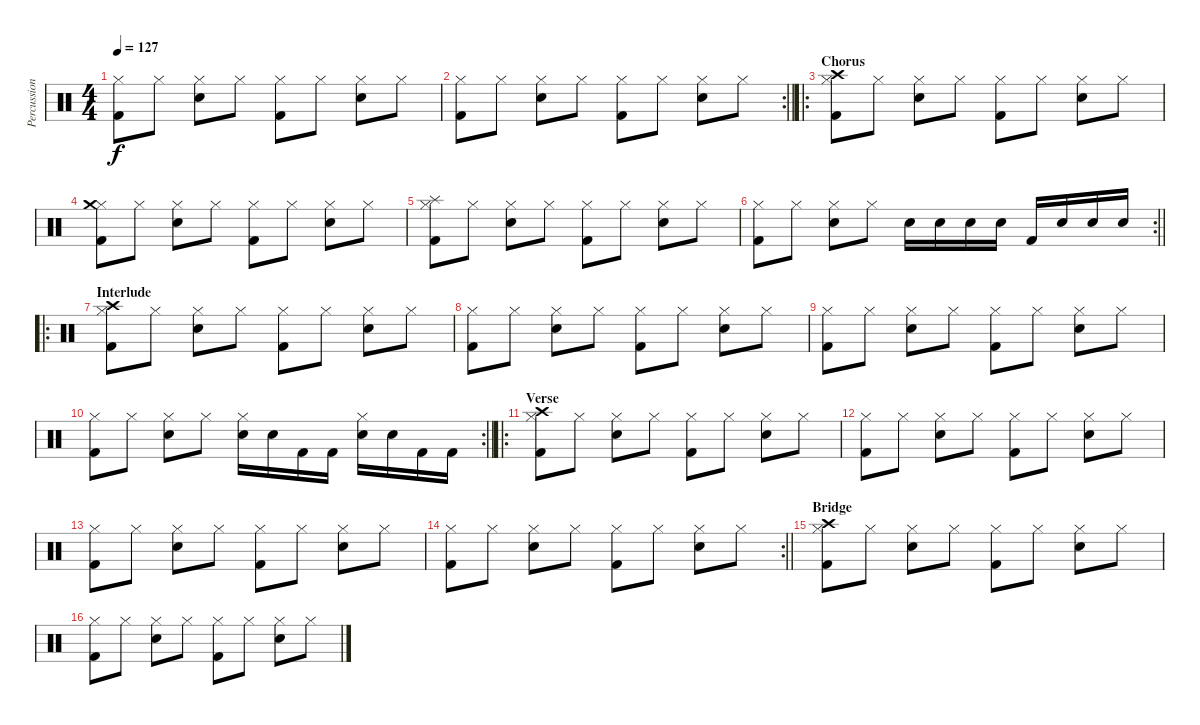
\track ("Percussions" "Percussion") {instrument percussion}
\staff {score}
\articulation defaults
\ts (4 4)
\tempo 127
\clef neutral
\ks c
("Hi-Hat (closed)" "Kick (hit) 2").8{dy f} "Hi-Hat (closed)".8 ("Hi-Hat (closed)" "Electric Snare (hit)").8 "Hi-Hat (closed)".8 ("Hi-Hat (closed)" "Kick (hit) 2").8 "Hi-Hat (closed)".8 ("Hi-Hat (closed)" "Electric Snare (hit)").8 "Hi-Hat (closed)".8 |
\rc 2
\barLineRight lightlight
("Hi-Hat (closed)" "Kick (hit) 2").8 "Hi-Hat (closed)".8 ("Hi-Hat (closed)" "Electric Snare (hit)").8 "Hi-Hat (closed)".8 ("Hi-Hat (closed)" "Kick (hit) 2").8 "Hi-Hat (closed)".8 ("Hi-Hat (closed)" "Electric Snare (hit)").8 "Hi-Hat (closed)".8 |
\ro
\section ("" "Chorus")
("Hi-Hat (closed)" "Crash high (hit)" "Kick (hit) 2").8 "Hi-Hat (closed)".8 ("Hi-Hat (closed)" "Electric Snare (hit)").8 "Hi-Hat (closed)".8 ("Hi-Hat (closed)" "Kick (hit) 2").8 "Hi-Hat (closed)".8 ("Hi-Hat (closed)" "Electric Snare (hit)").8 "Hi-Hat (closed)".8 |
("Hi-Hat (closed)" "Crash medium (hit)" "Kick (hit) 2").8 "Hi-Hat (closed)".8 ("Hi-Hat (closed)" "Electric Snare (hit)").8 "Hi-Hat (closed)".8 ("Hi-Hat (closed)" "Kick (hit) 2").8 "Hi-Hat (closed)".8 ("Hi-Hat (closed)" "Electric Snare (hit)").8 "Hi-Hat (closed)".8 |
("Hi-Hat (closed)" "Splash (hit)" "Kick (hit) 2").8 "Hi-Hat (closed)".8 ("Hi-Hat (closed)" "Electric Snare (hit)").8 "Hi-Hat (closed)".8 ("Hi-Hat (closed)" "Kick (hit) 2").8 "Hi-Hat (closed)".8 ("Hi-Hat (closed)" "Electric Snare (hit)").8 "Hi-Hat (closed)".8 |
\rc 2
\barLineRight lightlight
("Hi-Hat (closed)" "Kick (hit) 2").8 "Hi-Hat (closed)".8 ("Hi-Hat (closed)" "Electric Snare (hit)").8 "Hi-Hat (closed)".8 "Electric Snare (hit)".16 "Electric Snare (hit)".16 "Electric Snare (hit)".16 "Electric Snare (hit)".16 "Kick (hit) 2".16 "Electric Snare (hit)".16 "Electric Snare (hit)".16 "Electric Snare (hit)".16 |
\ro
\section ("" "Interlude")
("Hi-Hat (closed)" "Crash high (hit)" "Kick (hit) 2").8 "Hi-Hat (closed)".8 ("Hi-Hat (closed)" "Electric Snare (hit)").8 "Hi-Hat (closed)".8 ("Hi-Hat (closed)" "Kick (hit) 2").8 "Hi-Hat (closed)".8 ("Hi-Hat (closed)" "Electric Snare (hit)").8 "Hi-Hat (closed)".8 |
("Hi-Hat (closed)" "Kick (hit) 2").8 "Hi-Hat (closed)".8 ("Hi-Hat (closed)" "Electric Snare (hit)").8 "Hi-Hat (closed)".8 ("Hi-Hat (closed)" "Kick (hit) 2").8 "Hi-Hat (closed)".8 ("Hi-Hat (closed)" "Electric Snare (hit)").8 "Hi-Hat (closed)".8 |
("Hi-Hat (closed)" "Kick (hit) 2").8 "Hi-Hat (closed)".8 ("Hi-Hat (closed)" "Electric Snare (hit)").8 "Hi-Hat (closed)".8 ("Hi-Hat (closed)" "Kick (hit) 2").8 "Hi-Hat (closed)".8 ("Hi-Hat (closed)" "Electric Snare (hit)").8 "Hi-Hat (closed)".8 |
\rc 2
\barLineRight lightlight
("Hi-Hat (closed)" "Kick (hit) 2").8 "Hi-Hat (closed)".8 ("Hi-Hat (closed)" "Electric Snare (hit)").8 "Hi-Hat (closed)".8 ("Hi-Hat (closed)" "Electric Snare (hit)").16 "Electric Snare (hit)".16 "Kick (hit) 2".16 "Kick (hit) 2".16 ("Hi-Hat (closed)" "Electric Snare (hit)").16 "Electric Snare (hit)".16 "Kick (hit) 2".16 "Kick (hit) 2".16 |
\ro
\section ("" "Verse")
("Hi-Hat (closed)" "Crash high (hit)" "Kick (hit) 2").8 "Hi-Hat (closed)".8 ("Hi-Hat (closed)" "Electric Snare (hit)").8 "Hi-Hat (closed)".8 ("Hi-Hat (closed)" "Kick (hit) 2").8 "Hi-Hat (closed)".8 ("Hi-Hat (closed)" "Electric Snare (hit)").8 "Hi-Hat (closed)".8 |
("Hi-Hat (closed)" "Kick (hit) 2").8 "Hi-Hat (closed)".8 ("Hi-Hat (closed)" "Electric Snare (hit)").8 "Hi-Hat (closed)".8 ("Hi-Hat (closed)" "Kick (hit) 2").8 "Hi-Hat (closed)".8 ("Hi-Hat (closed)" "Electric Snare (hit)").8 "Hi-Hat (closed)".8 |
("Hi-Hat (closed)" "Kick (hit) 2").8 "Hi-Hat (closed)".8 ("Hi-Hat (closed)" "Electric Snare (hit)").8 "Hi-Hat (closed)".8 ("Hi-Hat (closed)" "Kick (hit) 2").8 "Hi-Hat (closed)".8 ("Hi-Hat (closed)" "Electric Snare (hit)").8 "Hi-Hat (closed)".8 |
\rc 2
\barLineRight lightlight
("Hi-Hat (closed)" "Kick (hit) 2").8 "Hi-Hat (closed)".8 ("Hi-Hat (closed)" "Electric Snare (hit)").8 "Hi-Hat (closed)".8 ("Hi-Hat (closed)" "Kick (hit) 2").8 "Hi-Hat (closed)".8 ("Hi-Hat (closed)" "Electric Snare (hit)").8 "Hi-Hat (closed)".8 |
\section ("" "Bridge")
("Hi-Hat (closed)" "Crash high (hit)" "Kick (hit) 2").8 "Hi-Hat (closed)".8 ("Hi-Hat (closed)" "Electric Snare (hit)").8 "Hi-Hat (closed)".8 ("Hi-Hat (closed)" "Kick (hit) 2").8 "Hi-Hat (closed)".8 ("Hi-Hat (closed)" "Electric Snare (hit)").8 "Hi-Hat (closed)".8 |
("Hi-Hat (closed)" "Kick (hit) 2").8 "Hi-Hat (closed)".8 ("Hi-Hat (closed)" "Electric Snare (hit)").8 "Hi-Hat (closed)".8 ("Hi-Hat (closed)" "Kick (hit) 2").8 "Hi-Hat (closed)".8 ("Hi-Hat (closed)" "Electric Snare (hit)").8 "Hi-Hat (closed)".8
